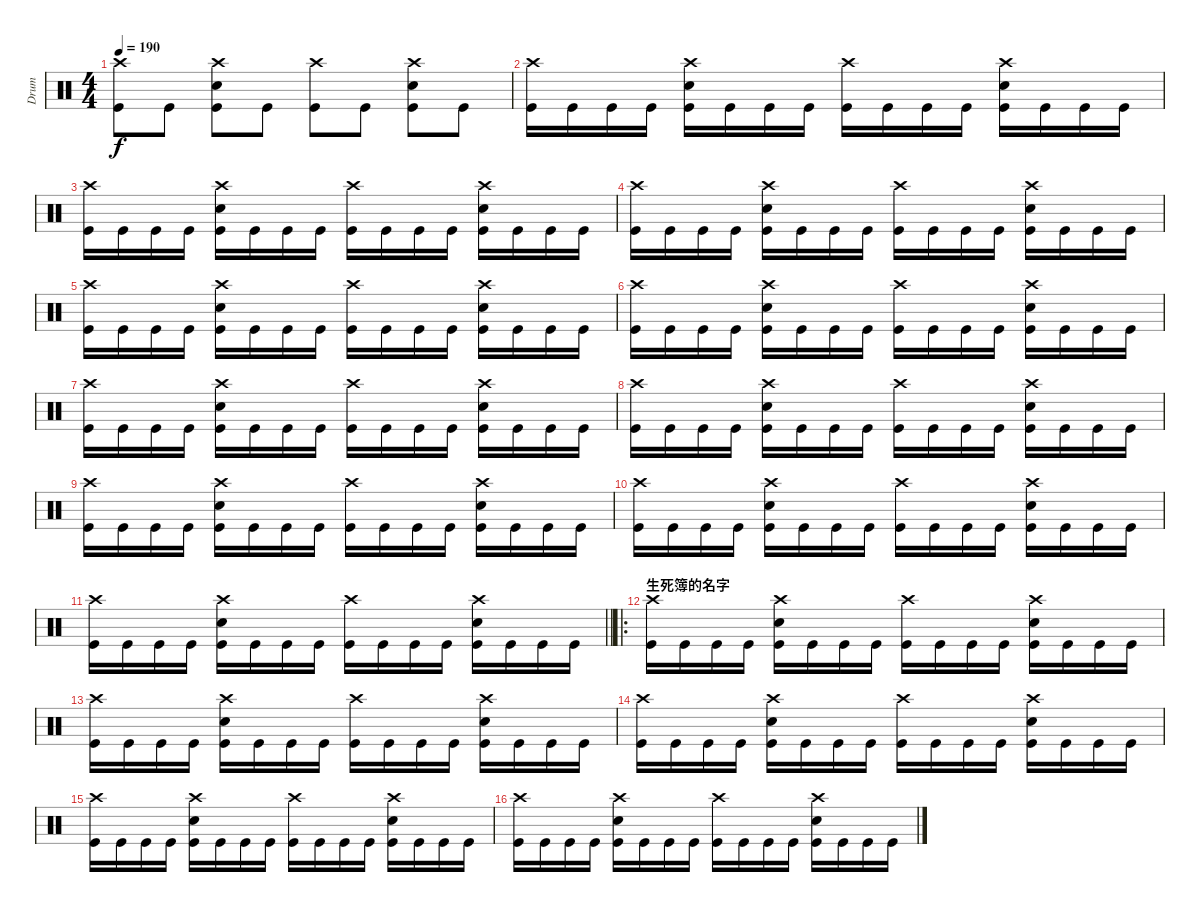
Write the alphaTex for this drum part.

\track ("Drum" "Drum") {instrument percussion}
\staff {score}
\articulation defaults
\ts (4 4)
\tempo 190
\clef neutral
\ks c
("Crash high (hit)" "Kick (hit)").8{dy f} "Kick (hit)".8 ("Crash high (hit)" "Kick (hit)" "Snare (hit) 2").8 "Kick (hit)".8 ("Crash high (hit)" "Kick (hit)").8 "Kick (hit)".8 ("Snare (hit) 2" "Kick (hit)" "Crash high (hit)").8 "Kick (hit)".8 |
("Crash high (hit)" "Kick (hit)").16 "Kick (hit)".16 "Kick (hit)".16 "Kick (hit)".16 ("Snare (hit) 2" "Crash high (hit)" "Kick (hit)").16 "Kick (hit)".16 "Kick (hit)".16 "Kick (hit)".16 ("Crash high (hit)" "Kick (hit)").16 "Kick (hit)".16 "Kick (hit)".16 "Kick (hit)".16 ("Snare (hit) 2" "Crash high (hit)" "Kick (hit)").16 "Kick (hit)".16 "Kick (hit)".16 "Kick (hit)".16 |
("Crash high (hit)" "Kick (hit)").16 "Kick (hit)".16 "Kick (hit)".16 "Kick (hit)".16 ("Snare (hit) 2" "Crash high (hit)" "Kick (hit)").16 "Kick (hit)".16 "Kick (hit)".16 "Kick (hit)".16 ("Crash high (hit)" "Kick (hit)").16 "Kick (hit)".16 "Kick (hit)".16 "Kick (hit)".16 ("Snare (hit) 2" "Crash high (hit)" "Kick (hit)").16 "Kick (hit)".16 "Kick (hit)".16 "Kick (hit)".16 |
("Crash high (hit)" "Kick (hit)").16 "Kick (hit)".16 "Kick (hit)".16 "Kick (hit)".16 ("Snare (hit) 2" "Crash high (hit)" "Kick (hit)").16 "Kick (hit)".16 "Kick (hit)".16 "Kick (hit)".16 ("Crash high (hit)" "Kick (hit)").16 "Kick (hit)".16 "Kick (hit)".16 "Kick (hit)".16 ("Snare (hit) 2" "Crash high (hit)" "Kick (hit)").16 "Kick (hit)".16 "Kick (hit)".16 "Kick (hit)".16 |
("Crash high (hit)" "Kick (hit)").16 "Kick (hit)".16 "Kick (hit)".16 "Kick (hit)".16 ("Snare (hit) 2" "Crash high (hit)" "Kick (hit)").16 "Kick (hit)".16 "Kick (hit)".16 "Kick (hit)".16 ("Crash high (hit)" "Kick (hit)").16 "Kick (hit)".16 "Kick (hit)".16 "Kick (hit)".16 ("Snare (hit) 2" "Crash high (hit)" "Kick (hit)").16 "Kick (hit)".16 "Kick (hit)".16 "Kick (hit)".16 |
("Crash high (hit)" "Kick (hit)").16 "Kick (hit)".16 "Kick (hit)".16 "Kick (hit)".16 ("Snare (hit) 2" "Crash high (hit)" "Kick (hit)").16 "Kick (hit)".16 "Kick (hit)".16 "Kick (hit)".16 ("Crash high (hit)" "Kick (hit)").16 "Kick (hit)".16 "Kick (hit)".16 "Kick (hit)".16 ("Snare (hit) 2" "Crash high (hit)" "Kick (hit)").16 "Kick (hit)".16 "Kick (hit)".16 "Kick (hit)".16 |
("Crash high (hit)" "Kick (hit)").16 "Kick (hit)".16 "Kick (hit)".16 "Kick (hit)".16 ("Snare (hit) 2" "Crash high (hit)" "Kick (hit)").16 "Kick (hit)".16 "Kick (hit)".16 "Kick (hit)".16 ("Crash high (hit)" "Kick (hit)").16 "Kick (hit)".16 "Kick (hit)".16 "Kick (hit)".16 ("Snare (hit) 2" "Crash high (hit)" "Kick (hit)").16 "Kick (hit)".16 "Kick (hit)".16 "Kick (hit)".16 |
("Crash high (hit)" "Kick (hit)").16 "Kick (hit)".16 "Kick (hit)".16 "Kick (hit)".16 ("Snare (hit) 2" "Crash high (hit)" "Kick (hit)").16 "Kick (hit)".16 "Kick (hit)".16 "Kick (hit)".16 ("Crash high (hit)" "Kick (hit)").16 "Kick (hit)".16 "Kick (hit)".16 "Kick (hit)".16 ("Snare (hit) 2" "Crash high (hit)" "Kick (hit)").16 "Kick (hit)".16 "Kick (hit)".16 "Kick (hit)".16 |
("Crash high (hit)" "Kick (hit)").16 "Kick (hit)".16 "Kick (hit)".16 "Kick (hit)".16 ("Snare (hit) 2" "Crash high (hit)" "Kick (hit)").16 "Kick (hit)".16 "Kick (hit)".16 "Kick (hit)".16 ("Crash high (hit)" "Kick (hit)").16 "Kick (hit)".16 "Kick (hit)".16 "Kick (hit)".16 ("Snare (hit) 2" "Crash high (hit)" "Kick (hit)").16 "Kick (hit)".16 "Kick (hit)".16 "Kick (hit)".16 |
("Crash high (hit)" "Kick (hit)").16 "Kick (hit)".16 "Kick (hit)".16 "Kick (hit)".16 ("Snare (hit) 2" "Crash high (hit)" "Kick (hit)").16 "Kick (hit)".16 "Kick (hit)".16 "Kick (hit)".16 ("Crash high (hit)" "Kick (hit)").16 "Kick (hit)".16 "Kick (hit)".16 "Kick (hit)".16 ("Snare (hit) 2" "Crash high (hit)" "Kick (hit)").16 "Kick (hit)".16 "Kick (hit)".16 "Kick (hit)".16 |
\barLineRight lightlight
("Crash high (hit)" "Kick (hit)").16 "Kick (hit)".16 "Kick (hit)".16 "Kick (hit)".16 ("Snare (hit) 2" "Crash high (hit)" "Kick (hit)").16 "Kick (hit)".16 "Kick (hit)".16 "Kick (hit)".16 ("Crash high (hit)" "Kick (hit)").16 "Kick (hit)".16 "Kick (hit)".16 "Kick (hit)".16 ("Snare (hit) 2" "Crash high (hit)" "Kick (hit)").16 "Kick (hit)".16 "Kick (hit)".16 "Kick (hit)".16 |
\ro
\section ("" "生死簿的名字")
("Crash high (hit)" "Kick (hit)").16 "Kick (hit)".16 "Kick (hit)".16 "Kick (hit)".16 ("Snare (hit) 2" "Crash high (hit)" "Kick (hit)").16 "Kick (hit)".16 "Kick (hit)".16 "Kick (hit)".16 ("Crash high (hit)" "Kick (hit)").16 "Kick (hit)".16 "Kick (hit)".16 "Kick (hit)".16 ("Snare (hit) 2" "Crash high (hit)" "Kick (hit)").16 "Kick (hit)".16 "Kick (hit)".16 "Kick (hit)".16 |
("Crash high (hit)" "Kick (hit)").16 "Kick (hit)".16 "Kick (hit)".16 "Kick (hit)".16 ("Snare (hit) 2" "Crash high (hit)" "Kick (hit)").16 "Kick (hit)".16 "Kick (hit)".16 "Kick (hit)".16 ("Crash high (hit)" "Kick (hit)").16 "Kick (hit)".16 "Kick (hit)".16 "Kick (hit)".16 ("Snare (hit) 2" "Crash high (hit)" "Kick (hit)").16 "Kick (hit)".16 "Kick (hit)".16 "Kick (hit)".16 |
("Crash high (hit)" "Kick (hit)").16 "Kick (hit)".16 "Kick (hit)".16 "Kick (hit)".16 ("Snare (hit) 2" "Crash high (hit)" "Kick (hit)").16 "Kick (hit)".16 "Kick (hit)".16 "Kick (hit)".16 ("Crash high (hit)" "Kick (hit)").16 "Kick (hit)".16 "Kick (hit)".16 "Kick (hit)".16 ("Snare (hit) 2" "Crash high (hit)" "Kick (hit)").16 "Kick (hit)".16 "Kick (hit)".16 "Kick (hit)".16 |
("Crash high (hit)" "Kick (hit)").16 "Kick (hit)".16 "Kick (hit)".16 "Kick (hit)".16 ("Snare (hit) 2" "Crash high (hit)" "Kick (hit)").16 "Kick (hit)".16 "Kick (hit)".16 "Kick (hit)".16 ("Crash high (hit)" "Kick (hit)").16 "Kick (hit)".16 "Kick (hit)".16 "Kick (hit)".16 ("Snare (hit) 2" "Crash high (hit)" "Kick (hit)").16 "Kick (hit)".16 "Kick (hit)".16 "Kick (hit)".16 |
("Crash high (hit)" "Kick (hit)").16 "Kick (hit)".16 "Kick (hit)".16 "Kick (hit)".16 ("Snare (hit) 2" "Crash high (hit)" "Kick (hit)").16 "Kick (hit)".16 "Kick (hit)".16 "Kick (hit)".16 ("Crash high (hit)" "Kick (hit)").16 "Kick (hit)".16 "Kick (hit)".16 "Kick (hit)".16 ("Snare (hit) 2" "Crash high (hit)" "Kick (hit)").16 "Kick (hit)".16 "Kick (hit)".16 "Kick (hit)".16
